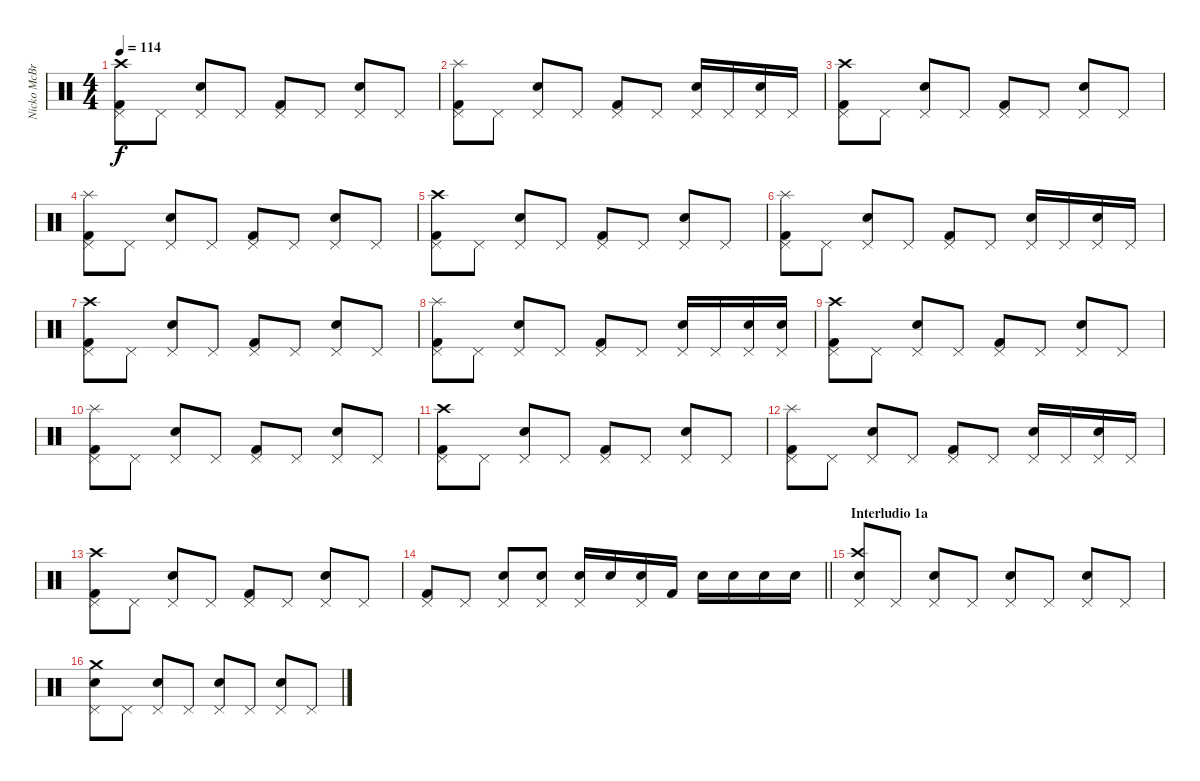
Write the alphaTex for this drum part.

\track ("Nicko McBrain" "Nicko McBr") {instrument percussion}
\staff {score}
\articulation defaults
\ts (4 4)
\tempo 114
\clef neutral
\ks c
("Kick (hit) 2" "Pedal Hi-Hat (hit)" "Crash high (hit)").8{dy f} "Pedal Hi-Hat (hit)".8 ("Snare (hit) 2" "Pedal Hi-Hat (hit)").8 "Pedal Hi-Hat (hit)".8 ("Kick (hit) 2" "Pedal Hi-Hat (hit)").8 "Pedal Hi-Hat (hit)".8 ("Snare (hit) 2" "Pedal Hi-Hat (hit)").8 "Pedal Hi-Hat (hit)".8 |
("Kick (hit) 2" "Pedal Hi-Hat (hit)" "Splash (hit)").8 "Pedal Hi-Hat (hit)".8 ("Snare (hit) 2" "Pedal Hi-Hat (hit)").8 "Pedal Hi-Hat (hit)".8 ("Kick (hit) 2" "Pedal Hi-Hat (hit)").8 "Pedal Hi-Hat (hit)".8 ("Snare (hit) 2" "Pedal Hi-Hat (hit)").16 "Pedal Hi-Hat (hit)".16 ("Snare (hit) 2" "Pedal Hi-Hat (hit)").16 "Pedal Hi-Hat (hit)".16 |
("Kick (hit) 2" "Pedal Hi-Hat (hit)" "Crash high (hit)").8 "Pedal Hi-Hat (hit)".8 ("Snare (hit) 2" "Pedal Hi-Hat (hit)").8 "Pedal Hi-Hat (hit)".8 ("Kick (hit) 2" "Pedal Hi-Hat (hit)").8 "Pedal Hi-Hat (hit)".8 ("Snare (hit) 2" "Pedal Hi-Hat (hit)").8 "Pedal Hi-Hat (hit)".8 |
("Kick (hit) 2" "Pedal Hi-Hat (hit)" "Splash (hit)").8 "Pedal Hi-Hat (hit)".8 ("Snare (hit) 2" "Pedal Hi-Hat (hit)").8 "Pedal Hi-Hat (hit)".8 ("Kick (hit) 2" "Pedal Hi-Hat (hit)").8 "Pedal Hi-Hat (hit)".8 ("Snare (hit) 2" "Pedal Hi-Hat (hit)").8 "Pedal Hi-Hat (hit)".8 |
("Kick (hit) 2" "Pedal Hi-Hat (hit)" "Crash high (hit)").8 "Pedal Hi-Hat (hit)".8 ("Snare (hit) 2" "Pedal Hi-Hat (hit)").8 "Pedal Hi-Hat (hit)".8 ("Kick (hit) 2" "Pedal Hi-Hat (hit)").8 "Pedal Hi-Hat (hit)".8 ("Snare (hit) 2" "Pedal Hi-Hat (hit)").8 "Pedal Hi-Hat (hit)".8 |
("Kick (hit) 2" "Pedal Hi-Hat (hit)" "Splash (hit)").8 "Pedal Hi-Hat (hit)".8 ("Snare (hit) 2" "Pedal Hi-Hat (hit)").8 "Pedal Hi-Hat (hit)".8 ("Kick (hit) 2" "Pedal Hi-Hat (hit)").8 "Pedal Hi-Hat (hit)".8 ("Snare (hit) 2" "Pedal Hi-Hat (hit)").16 "Pedal Hi-Hat (hit)".16 ("Snare (hit) 2" "Pedal Hi-Hat (hit)").16 "Pedal Hi-Hat (hit)".16 |
("Kick (hit) 2" "Pedal Hi-Hat (hit)" "Crash high (hit)").8 "Pedal Hi-Hat (hit)".8 ("Snare (hit) 2" "Pedal Hi-Hat (hit)").8 "Pedal Hi-Hat (hit)".8 ("Kick (hit) 2" "Pedal Hi-Hat (hit)").8 "Pedal Hi-Hat (hit)".8 ("Snare (hit) 2" "Pedal Hi-Hat (hit)").8 "Pedal Hi-Hat (hit)".8 |
("Kick (hit) 2" "Pedal Hi-Hat (hit)" "Splash (hit)").8 "Pedal Hi-Hat (hit)".8 ("Snare (hit) 2" "Pedal Hi-Hat (hit)").8 "Pedal Hi-Hat (hit)".8 ("Kick (hit) 2" "Pedal Hi-Hat (hit)").8 "Pedal Hi-Hat (hit)".8 ("Snare (hit) 2" "Pedal Hi-Hat (hit)").16 "Pedal Hi-Hat (hit)".16 ("Snare (hit) 2" "Pedal Hi-Hat (hit)").16 ("Snare (hit) 2" "Pedal Hi-Hat (hit)").16 |
("Kick (hit) 2" "Pedal Hi-Hat (hit)" "Crash high (hit)").8 "Pedal Hi-Hat (hit)".8 ("Snare (hit) 2" "Pedal Hi-Hat (hit)").8 "Pedal Hi-Hat (hit)".8 ("Kick (hit) 2" "Pedal Hi-Hat (hit)").8 "Pedal Hi-Hat (hit)".8 ("Snare (hit) 2" "Pedal Hi-Hat (hit)").8 "Pedal Hi-Hat (hit)".8 |
("Kick (hit) 2" "Pedal Hi-Hat (hit)" "Splash (hit)").8 "Pedal Hi-Hat (hit)".8 ("Snare (hit) 2" "Pedal Hi-Hat (hit)").8 "Pedal Hi-Hat (hit)".8 ("Kick (hit) 2" "Pedal Hi-Hat (hit)").8 "Pedal Hi-Hat (hit)".8 ("Snare (hit) 2" "Pedal Hi-Hat (hit)").8 "Pedal Hi-Hat (hit)".8 |
("Kick (hit) 2" "Pedal Hi-Hat (hit)" "Crash high (hit)").8 "Pedal Hi-Hat (hit)".8 ("Snare (hit) 2" "Pedal Hi-Hat (hit)").8 "Pedal Hi-Hat (hit)".8 ("Kick (hit) 2" "Pedal Hi-Hat (hit)").8 "Pedal Hi-Hat (hit)".8 ("Snare (hit) 2" "Pedal Hi-Hat (hit)").8 "Pedal Hi-Hat (hit)".8 |
("Kick (hit) 2" "Pedal Hi-Hat (hit)" "Splash (hit)").8 "Pedal Hi-Hat (hit)".8 ("Snare (hit) 2" "Pedal Hi-Hat (hit)").8 "Pedal Hi-Hat (hit)".8 ("Kick (hit) 2" "Pedal Hi-Hat (hit)").8 "Pedal Hi-Hat (hit)".8 ("Snare (hit) 2" "Pedal Hi-Hat (hit)").16 "Pedal Hi-Hat (hit)".16 ("Snare (hit) 2" "Pedal Hi-Hat (hit)").16 "Pedal Hi-Hat (hit)".16 |
("Kick (hit) 2" "Pedal Hi-Hat (hit)" "Crash high (hit)").8 "Pedal Hi-Hat (hit)".8 ("Snare (hit) 2" "Pedal Hi-Hat (hit)").8 "Pedal Hi-Hat (hit)".8 ("Kick (hit) 2" "Pedal Hi-Hat (hit)").8 "Pedal Hi-Hat (hit)".8 ("Snare (hit) 2" "Pedal Hi-Hat (hit)").8 "Pedal Hi-Hat (hit)".8 |
\barLineRight lightlight
("Kick (hit) 2" "Pedal Hi-Hat (hit)").8 "Pedal Hi-Hat (hit)".8 ("Snare (hit) 2" "Pedal Hi-Hat (hit)").8 ("Snare (hit) 2" "Pedal Hi-Hat (hit)").8 ("Snare (hit) 2" "Pedal Hi-Hat (hit)").16 "Snare (hit) 2".16 ("Snare (hit) 2" "Pedal Hi-Hat (hit)").16 "Kick (hit) 2".16 "Snare (hit) 2".16 "Snare (hit) 2".16 "Snare (hit) 2".16 "Snare (hit) 2".16 |
\section ("" "Interludio 1a")
("Snare (hit) 2" "Pedal Hi-Hat (hit)" "Crash high (hit)").8 "Pedal Hi-Hat (hit)".8 ("Snare (hit) 2" "Pedal Hi-Hat (hit)").8 "Pedal Hi-Hat (hit)".8 ("Snare (hit) 2" "Pedal Hi-Hat (hit)").8 "Pedal Hi-Hat (hit)".8 ("Snare (hit) 2" "Pedal Hi-Hat (hit)").8 "Pedal Hi-Hat (hit)".8 |
("Snare (hit) 2" "Pedal Hi-Hat (hit)" "Crash medium (hit)").8 "Pedal Hi-Hat (hit)".8 ("Snare (hit) 2" "Pedal Hi-Hat (hit)").8 "Pedal Hi-Hat (hit)".8 ("Snare (hit) 2" "Pedal Hi-Hat (hit)").8 "Pedal Hi-Hat (hit)".8 ("Snare (hit) 2" "Pedal Hi-Hat (hit)").8 "Pedal Hi-Hat (hit)".8
